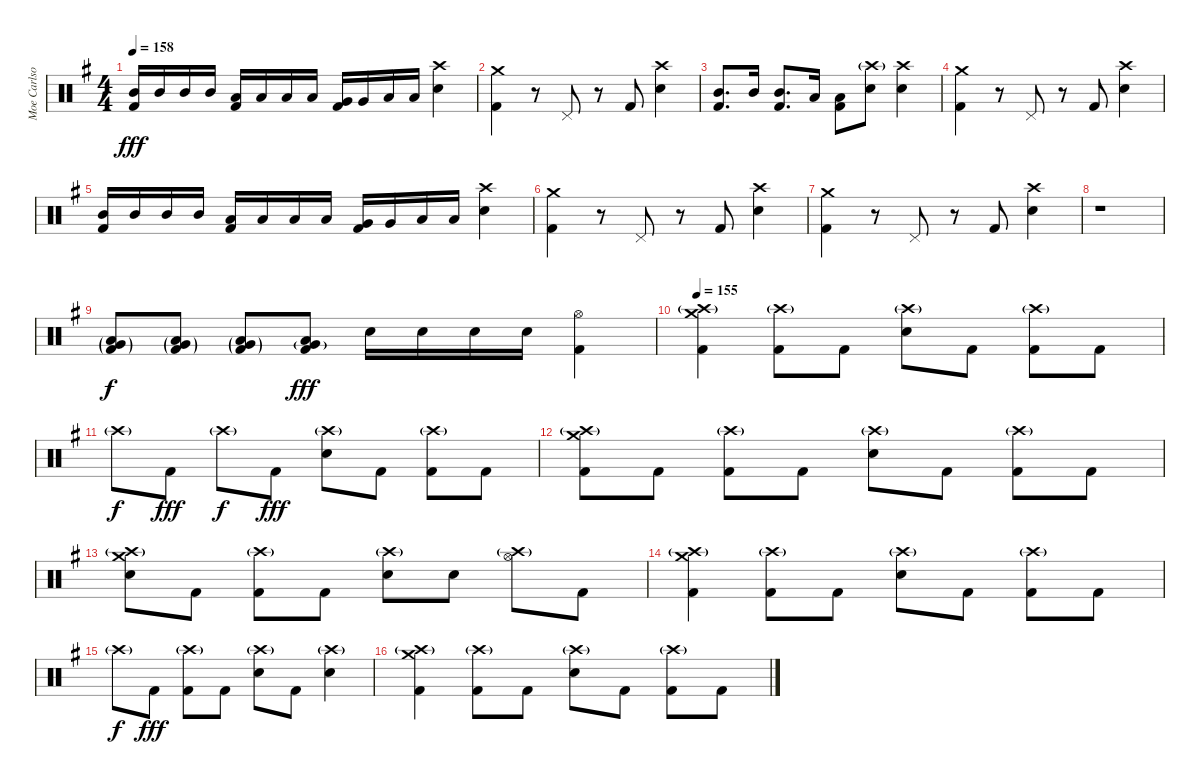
\track ("Moe Carlson" "Moe Carlso") {instrument percussion}
\staff {score}
\articulation defaults
\ts (4 4)
\tempo 158
\clef neutral
\ks g
("Mid Tom (hit)" "Kick (hit) 2").16{dy fff} "Mid Tom (hit)".16 "Mid Tom (hit)".16 "Mid Tom (hit)".16 ("Low Tom (hit)" "Kick (hit) 2").16 "Low Tom (hit)".16 "Low Tom (hit)".16 "Low Tom (hit)".16 ("Very Low Tom (hit)" "Kick (hit) 2").16 "Very Low Tom (hit)".16 "Low Floor Tom (hit)".16 "Low Floor Tom (hit)".16 ("Crash high (hit)" "Electric Snare (hit)").4 |
("Crash medium (hit)" "Kick (hit) 2").4 r.8 "Pedal Hi-Hat (hit)".8 r.8 "Kick (hit) 2".8 ("Crash high (hit)" "Electric Snare (hit)").4 |
("Mid Tom (hit)" "Kick (hit) 2").8{d} "Mid Tom (hit)".16 ("Mid Tom (hit)" "Kick (hit) 2").8{d} "Low Tom (hit)".16 ("Low Tom (hit)" "Kick (hit) 2").8 ("Crash high (hit)"{g} "Electric Snare (hit)").8 ("Crash high (hit)" "Electric Snare (hit)").4 |
("Crash medium (hit)" "Kick (hit) 2").4 r.8 "Pedal Hi-Hat (hit)".8 r.8 "Kick (hit) 2".8 ("Crash high (hit)" "Electric Snare (hit)").4 |
("Mid Tom (hit)" "Kick (hit) 2").16 "Mid Tom (hit)".16 "Mid Tom (hit)".16 "Mid Tom (hit)".16 ("Low Tom (hit)" "Kick (hit) 2").16 "Low Tom (hit)".16 "Low Tom (hit)".16 "Low Tom (hit)".16 ("Very Low Tom (hit)" "Kick (hit) 2").16 "Very Low Tom (hit)".16 "Low Floor Tom (hit)".16 "Low Floor Tom (hit)".16 ("Crash high (hit)" "Electric Snare (hit)").4 |
("Crash medium (hit)" "Kick (hit) 2").4 r.8 "Pedal Hi-Hat (hit)".8 r.8 "Kick (hit) 2".8 ("Crash high (hit)" "Electric Snare (hit)").4 |
("Crash medium (hit)" "Kick (hit) 2").4 r.8 "Pedal Hi-Hat (hit)".8 r.8 "Kick (hit) 2".8 ("Crash high (hit)" "Electric Snare (hit)").4 |
r.1 |
("Very Low Tom (hit)"{g} "Low Floor Tom (hit)"{g} "Kick (hit) 2"{g}).8{dy f} ("Very Low Tom (hit)"{g} "Low Floor Tom (hit)"{g} "Kick (hit) 2"{g}).8 ("Very Low Tom (hit)"{g} "Low Floor Tom (hit)"{g} "Kick (hit) 2"{g}).8 ("Very Low Tom (hit)"{g} "Low Floor Tom (hit)" "Kick (hit) 2").8{dy fff} "Electric Snare (hit)".16 "Electric Snare (hit)".16 "Electric Snare (hit)".16 "Electric Snare (hit)".16 ("Hi-Hat (open)" "Kick (hit) 2").4 |
\tempo 155
("Crash high (hit)"{g} "Crash medium (hit)" "Kick (hit) 2").4 ("Crash high (hit)"{g} "Kick (hit) 2").8 "Kick (hit) 2".8 ("Crash high (hit)"{g} "Electric Snare (hit)").8 "Kick (hit) 2".8 ("Crash high (hit)"{g} "Kick (hit) 2").8 "Kick (hit) 2".8 |
"Crash high (hit)"{g}.8{dy f} "Kick (hit) 2".8{dy fff} "Crash high (hit)"{g}.8{dy f} "Kick (hit) 2".8{dy fff} ("Crash high (hit)"{g} "Electric Snare (hit)").8 "Kick (hit) 2".8 ("Crash high (hit)"{g} "Kick (hit) 2").8 "Kick (hit) 2".8 |
("Crash high (hit)"{g} "Crash medium (hit)" "Kick (hit) 2").8 "Kick (hit) 2".8 ("Crash high (hit)"{g} "Kick (hit) 2").8 "Kick (hit) 2".8 ("Crash high (hit)"{g} "Electric Snare (hit)").8 "Kick (hit) 2".8 ("Crash high (hit)"{g} "Kick (hit) 2").8 "Kick (hit) 2".8 |
("Crash high (hit)"{g} "Crash medium (hit)" "Electric Snare (hit)").8 "Kick (hit) 2".8 ("Crash high (hit)"{g} "Kick (hit) 2").8 "Kick (hit) 2".8 ("Crash high (hit)"{g} "Electric Snare (hit)").8 "Electric Snare (hit)".8 ("Crash high (hit)"{g} "Hi-Hat (open)").8 "Kick (hit) 2".8 |
("Crash high (hit)"{g} "Crash medium (hit)" "Kick (hit) 2").4 ("Crash high (hit)"{g} "Kick (hit) 2").8 "Kick (hit) 2".8 ("Crash high (hit)"{g} "Electric Snare (hit)").8 "Kick (hit) 2".8 ("Crash high (hit)"{g} "Kick (hit) 2").8 "Kick (hit) 2".8 |
"Crash high (hit)"{g}.8{dy f} "Kick (hit) 2".8{dy fff} ("Crash high (hit)"{g} "Kick (hit) 2").8 "Kick (hit) 2".8 ("Crash high (hit)"{g} "Electric Snare (hit)").8 "Kick (hit) 2".8 ("Crash high (hit)"{g} "Electric Snare (hit)").4 |
("Crash high (hit)"{g} "Crash medium (hit)" "Kick (hit) 2").4 ("Crash high (hit)"{g} "Kick (hit) 2").8 "Kick (hit) 2".8 ("Crash high (hit)"{g} "Electric Snare (hit)").8 "Kick (hit) 2".8 ("Crash high (hit)"{g} "Kick (hit) 2").8 "Kick (hit) 2".8
